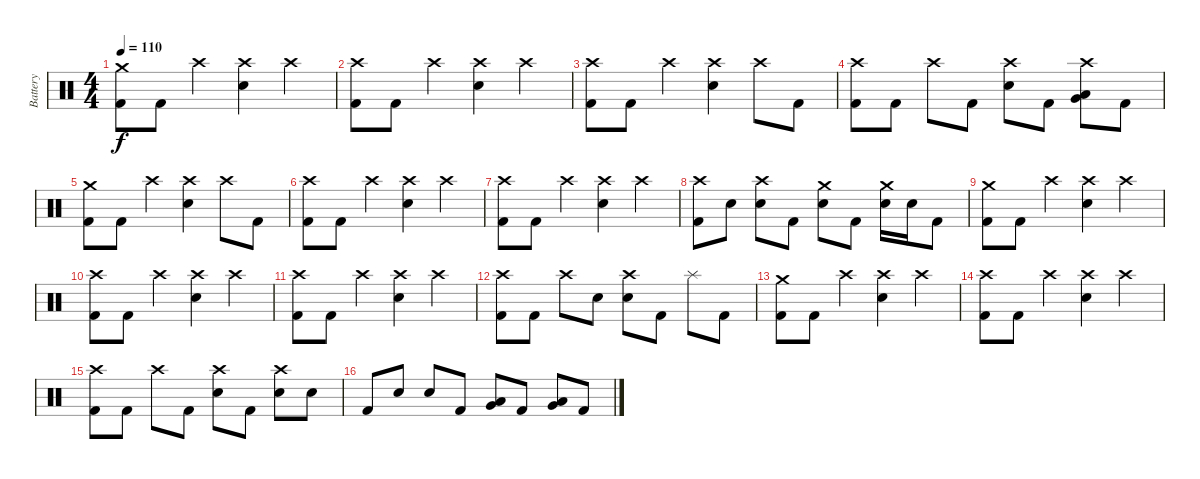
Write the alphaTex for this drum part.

\track ("Battery" "Battery") {instrument percussion}
\staff {score}
\articulation defaults
\ts (4 4)
\tempo 110
\clef neutral
\ks c
("Crash medium (hit)" "Kick (hit) 2").8{dy f} "Kick (hit) 2".8 "Crash high (hit)".4 ("Crash high (hit)" "Electric Snare (hit)").4 "Crash high (hit)".4 |
("Crash high (hit)" "Kick (hit) 2").8 "Kick (hit) 2".8 "Crash high (hit)".4 ("Crash high (hit)" "Electric Snare (hit)").4 "Crash high (hit)".4 |
("Crash high (hit)" "Kick (hit) 2").8 "Kick (hit) 2".8 "Crash high (hit)".4 ("Crash high (hit)" "Electric Snare (hit)").4 "Crash high (hit)".8 "Kick (hit) 2".8 |
("Crash high (hit)" "Kick (hit) 2").8 "Kick (hit) 2".8 "Crash high (hit)".8 "Kick (hit) 2".8 ("Crash high (hit)" "Electric Snare (hit)").8 "Kick (hit) 2".8 ("Crash high (hit)" "Very Low Tom (hit)" "Low Tom (hit)").8 "Kick (hit) 2".8 |
("Crash medium (hit)" "Kick (hit) 2").8 "Kick (hit) 2".8 "Crash high (hit)".4 ("Crash high (hit)" "Electric Snare (hit)").4 "Crash high (hit)".8 "Kick (hit) 2".8 |
("Crash high (hit)" "Kick (hit) 2").8 "Kick (hit) 2".8 "Crash high (hit)".4 ("Crash high (hit)" "Electric Snare (hit)").4 "Crash high (hit)".4 |
("Crash high (hit)" "Kick (hit) 2").8 "Kick (hit) 2".8 "Crash high (hit)".4 ("Crash high (hit)" "Electric Snare (hit)").4 "Crash high (hit)".4 |
("Crash high (hit)" "Kick (hit) 2").8 "Electric Snare (hit)".8 ("Crash high (hit)" "Electric Snare (hit)").8 "Kick (hit) 2".8 ("Crash medium (hit)" "Electric Snare (hit)").8 "Kick (hit) 2".8 ("Crash medium (hit)" "Electric Snare (hit)").16 "Electric Snare (hit)".16 "Kick (hit) 2".8 |
("Crash medium (hit)" "Kick (hit) 2").8 "Kick (hit) 2".8 "Crash high (hit)".4 ("Crash high (hit)" "Electric Snare (hit)").4 "Crash high (hit)".4 |
("Crash high (hit)" "Kick (hit) 2").8 "Kick (hit) 2".8 "Crash high (hit)".4 ("Crash high (hit)" "Electric Snare (hit)").4 "Crash high (hit)".4 |
("Crash high (hit)" "Kick (hit) 2").8 "Kick (hit) 2".8 "Crash high (hit)".4 ("Crash high (hit)" "Electric Snare (hit)").4 "Crash high (hit)".4 |
("Crash high (hit)" "Kick (hit) 2").8 "Kick (hit) 2".8 "Crash high (hit)".8 "Electric Snare (hit)".8 ("Crash high (hit)" "Electric Snare (hit)").8 "Kick (hit) 2".8 "Splash (hit)".8 "Kick (hit) 2".8 |
("Crash medium (hit)" "Kick (hit) 2").8 "Kick (hit) 2".8 "Crash high (hit)".4 ("Crash high (hit)" "Electric Snare (hit)").4 "Crash high (hit)".4 |
("Crash high (hit)" "Kick (hit) 2").8 "Kick (hit) 2".8 "Crash high (hit)".4 ("Crash high (hit)" "Electric Snare (hit)").4 "Crash high (hit)".4 |
("Crash high (hit)" "Kick (hit) 2").8 "Kick (hit) 2".8 "Crash high (hit)".8 "Kick (hit) 2".8 ("Crash high (hit)" "Electric Snare (hit)").8 "Kick (hit) 2".8 ("Crash high (hit)" "Electric Snare (hit)").8 "Electric Snare (hit)".8 |
"Kick (hit) 2".8 "Electric Snare (hit)".8 "Electric Snare (hit)".8 "Kick (hit) 2".8 ("Very Low Tom (hit)" "Low Tom (hit)").8 "Kick (hit) 2".8 ("Very Low Tom (hit)" "Low Floor Tom (hit)").8 "Kick (hit) 2".8
